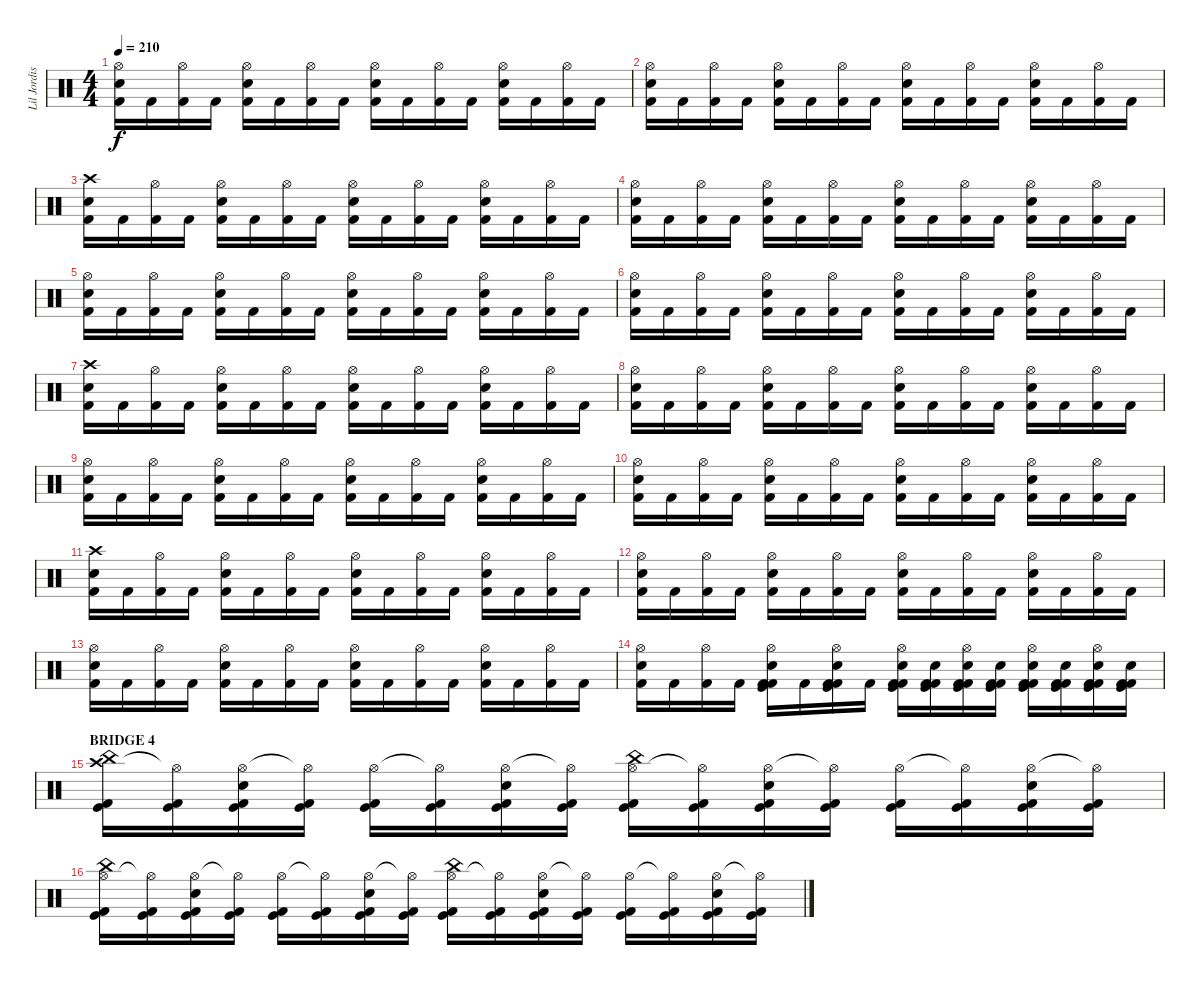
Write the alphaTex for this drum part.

\track ("Lil Jordison" "Lil Jordis") {instrument percussion}
\staff {score}
\articulation defaults
\ts (4 4)
\tempo 210
\clef neutral
\ks c
("Hi-Hat (open)" "Electric Snare (hit)" "Kick (hit) 2").16{dy f} "Kick (hit) 2".16 ("Hi-Hat (open)" "Kick (hit) 2").16 "Kick (hit) 2".16 ("Hi-Hat (open)" "Electric Snare (hit)" "Kick (hit) 2").16 "Kick (hit) 2".16 ("Hi-Hat (open)" "Kick (hit) 2").16 "Kick (hit) 2".16 ("Hi-Hat (open)" "Electric Snare (hit)" "Kick (hit) 2").16 "Kick (hit) 2".16 ("Hi-Hat (open)" "Kick (hit) 2").16 "Kick (hit) 2".16 ("Hi-Hat (open)" "Electric Snare (hit)" "Kick (hit) 2").16 "Kick (hit) 2".16 ("Hi-Hat (open)" "Kick (hit) 2").16 "Kick (hit) 2".16 |
("Hi-Hat (open)" "Electric Snare (hit)" "Kick (hit) 2").16 "Kick (hit) 2".16 ("Hi-Hat (open)" "Kick (hit) 2").16 "Kick (hit) 2".16 ("Hi-Hat (open)" "Electric Snare (hit)" "Kick (hit) 2").16 "Kick (hit) 2".16 ("Hi-Hat (open)" "Kick (hit) 2").16 "Kick (hit) 2".16 ("Hi-Hat (open)" "Electric Snare (hit)" "Kick (hit) 2").16 "Kick (hit) 2".16 ("Hi-Hat (open)" "Kick (hit) 2").16 "Kick (hit) 2".16 ("Hi-Hat (open)" "Electric Snare (hit)" "Kick (hit) 2").16 "Kick (hit) 2".16 ("Hi-Hat (open)" "Kick (hit) 2").16 "Kick (hit) 2".16 |
("Crash high (hit)" "Electric Snare (hit)" "Kick (hit) 2").16 "Kick (hit) 2".16 ("Hi-Hat (open)" "Kick (hit) 2").16 "Kick (hit) 2".16 ("Hi-Hat (open)" "Electric Snare (hit)" "Kick (hit) 2").16 "Kick (hit) 2".16 ("Hi-Hat (open)" "Kick (hit) 2").16 "Kick (hit) 2".16 ("Hi-Hat (open)" "Electric Snare (hit)" "Kick (hit) 2").16 "Kick (hit) 2".16 ("Hi-Hat (open)" "Kick (hit) 2").16 "Kick (hit) 2".16 ("Hi-Hat (open)" "Electric Snare (hit)" "Kick (hit) 2").16 "Kick (hit) 2".16 ("Hi-Hat (open)" "Kick (hit) 2").16 "Kick (hit) 2".16 |
("Hi-Hat (open)" "Electric Snare (hit)" "Kick (hit) 2").16 "Kick (hit) 2".16 ("Hi-Hat (open)" "Kick (hit) 2").16 "Kick (hit) 2".16 ("Hi-Hat (open)" "Electric Snare (hit)" "Kick (hit) 2").16 "Kick (hit) 2".16 ("Hi-Hat (open)" "Kick (hit) 2").16 "Kick (hit) 2".16 ("Hi-Hat (open)" "Electric Snare (hit)" "Kick (hit) 2").16 "Kick (hit) 2".16 ("Hi-Hat (open)" "Kick (hit) 2").16 "Kick (hit) 2".16 ("Hi-Hat (open)" "Electric Snare (hit)" "Kick (hit) 2").16 "Kick (hit) 2".16 ("Hi-Hat (open)" "Kick (hit) 2").16 "Kick (hit) 2".16 |
("Hi-Hat (open)" "Electric Snare (hit)" "Kick (hit) 2").16 "Kick (hit) 2".16 ("Hi-Hat (open)" "Kick (hit) 2").16 "Kick (hit) 2".16 ("Hi-Hat (open)" "Electric Snare (hit)" "Kick (hit) 2").16 "Kick (hit) 2".16 ("Hi-Hat (open)" "Kick (hit) 2").16 "Kick (hit) 2".16 ("Hi-Hat (open)" "Electric Snare (hit)" "Kick (hit) 2").16 "Kick (hit) 2".16 ("Hi-Hat (open)" "Kick (hit) 2").16 "Kick (hit) 2".16 ("Hi-Hat (open)" "Electric Snare (hit)" "Kick (hit) 2").16 "Kick (hit) 2".16 ("Hi-Hat (open)" "Kick (hit) 2").16 "Kick (hit) 2".16 |
("Hi-Hat (open)" "Electric Snare (hit)" "Kick (hit) 2").16 "Kick (hit) 2".16 ("Hi-Hat (open)" "Kick (hit) 2").16 "Kick (hit) 2".16 ("Hi-Hat (open)" "Electric Snare (hit)" "Kick (hit) 2").16 "Kick (hit) 2".16 ("Hi-Hat (open)" "Kick (hit) 2").16 "Kick (hit) 2".16 ("Hi-Hat (open)" "Electric Snare (hit)" "Kick (hit) 2").16 "Kick (hit) 2".16 ("Hi-Hat (open)" "Kick (hit) 2").16 "Kick (hit) 2".16 ("Hi-Hat (open)" "Electric Snare (hit)" "Kick (hit) 2").16 "Kick (hit) 2".16 ("Hi-Hat (open)" "Kick (hit) 2").16 "Kick (hit) 2".16 |
("Crash high (hit)" "Electric Snare (hit)" "Kick (hit) 2").16 "Kick (hit) 2".16 ("Hi-Hat (open)" "Kick (hit) 2").16 "Kick (hit) 2".16 ("Hi-Hat (open)" "Electric Snare (hit)" "Kick (hit) 2").16 "Kick (hit) 2".16 ("Hi-Hat (open)" "Kick (hit) 2").16 "Kick (hit) 2".16 ("Hi-Hat (open)" "Electric Snare (hit)" "Kick (hit) 2").16 "Kick (hit) 2".16 ("Hi-Hat (open)" "Kick (hit) 2").16 "Kick (hit) 2".16 ("Hi-Hat (open)" "Electric Snare (hit)" "Kick (hit) 2").16 "Kick (hit) 2".16 ("Hi-Hat (open)" "Kick (hit) 2").16 "Kick (hit) 2".16 |
("Hi-Hat (open)" "Electric Snare (hit)" "Kick (hit) 2").16 "Kick (hit) 2".16 ("Hi-Hat (open)" "Kick (hit) 2").16 "Kick (hit) 2".16 ("Hi-Hat (open)" "Electric Snare (hit)" "Kick (hit) 2").16 "Kick (hit) 2".16 ("Hi-Hat (open)" "Kick (hit) 2").16 "Kick (hit) 2".16 ("Hi-Hat (open)" "Electric Snare (hit)" "Kick (hit) 2").16 "Kick (hit) 2".16 ("Hi-Hat (open)" "Kick (hit) 2").16 "Kick (hit) 2".16 ("Hi-Hat (open)" "Electric Snare (hit)" "Kick (hit) 2").16 "Kick (hit) 2".16 ("Hi-Hat (open)" "Kick (hit) 2").16 "Kick (hit) 2".16 |
("Hi-Hat (open)" "Electric Snare (hit)" "Kick (hit) 2").16 "Kick (hit) 2".16 ("Hi-Hat (open)" "Kick (hit) 2").16 "Kick (hit) 2".16 ("Hi-Hat (open)" "Electric Snare (hit)" "Kick (hit) 2").16 "Kick (hit) 2".16 ("Hi-Hat (open)" "Kick (hit) 2").16 "Kick (hit) 2".16 ("Hi-Hat (open)" "Electric Snare (hit)" "Kick (hit) 2").16 "Kick (hit) 2".16 ("Hi-Hat (open)" "Kick (hit) 2").16 "Kick (hit) 2".16 ("Hi-Hat (open)" "Electric Snare (hit)" "Kick (hit) 2").16 "Kick (hit) 2".16 ("Hi-Hat (open)" "Kick (hit) 2").16 "Kick (hit) 2".16 |
("Hi-Hat (open)" "Electric Snare (hit)" "Kick (hit) 2").16 "Kick (hit) 2".16 ("Hi-Hat (open)" "Kick (hit) 2").16 "Kick (hit) 2".16 ("Hi-Hat (open)" "Electric Snare (hit)" "Kick (hit) 2").16 "Kick (hit) 2".16 ("Hi-Hat (open)" "Kick (hit) 2").16 "Kick (hit) 2".16 ("Hi-Hat (open)" "Electric Snare (hit)" "Kick (hit) 2").16 "Kick (hit) 2".16 ("Hi-Hat (open)" "Kick (hit) 2").16 "Kick (hit) 2".16 ("Hi-Hat (open)" "Electric Snare (hit)" "Kick (hit) 2").16 "Kick (hit) 2".16 ("Hi-Hat (open)" "Kick (hit) 2").16 "Kick (hit) 2".16 |
("Crash high (hit)" "Electric Snare (hit)" "Kick (hit) 2").16 "Kick (hit) 2".16 ("Hi-Hat (open)" "Kick (hit) 2").16 "Kick (hit) 2".16 ("Hi-Hat (open)" "Electric Snare (hit)" "Kick (hit) 2").16 "Kick (hit) 2".16 ("Hi-Hat (open)" "Kick (hit) 2").16 "Kick (hit) 2".16 ("Hi-Hat (open)" "Electric Snare (hit)" "Kick (hit) 2").16 "Kick (hit) 2".16 ("Hi-Hat (open)" "Kick (hit) 2").16 "Kick (hit) 2".16 ("Hi-Hat (open)" "Electric Snare (hit)" "Kick (hit) 2").16 "Kick (hit) 2".16 ("Hi-Hat (open)" "Kick (hit) 2").16 "Kick (hit) 2".16 |
("Hi-Hat (open)" "Electric Snare (hit)" "Kick (hit) 2").16 "Kick (hit) 2".16 ("Hi-Hat (open)" "Kick (hit) 2").16 "Kick (hit) 2".16 ("Hi-Hat (open)" "Electric Snare (hit)" "Kick (hit) 2").16 "Kick (hit) 2".16 ("Hi-Hat (open)" "Kick (hit) 2").16 "Kick (hit) 2".16 ("Hi-Hat (open)" "Electric Snare (hit)" "Kick (hit) 2").16 "Kick (hit) 2".16 ("Hi-Hat (open)" "Kick (hit) 2").16 "Kick (hit) 2".16 ("Hi-Hat (open)" "Electric Snare (hit)" "Kick (hit) 2").16 "Kick (hit) 2".16 ("Hi-Hat (open)" "Kick (hit) 2").16 "Kick (hit) 2".16 |
("Hi-Hat (open)" "Electric Snare (hit)" "Kick (hit) 2").16 "Kick (hit) 2".16 ("Hi-Hat (open)" "Kick (hit) 2").16 "Kick (hit) 2".16 ("Hi-Hat (open)" "Electric Snare (hit)" "Kick (hit) 2").16 "Kick (hit) 2".16 ("Hi-Hat (open)" "Kick (hit) 2").16 "Kick (hit) 2".16 ("Hi-Hat (open)" "Electric Snare (hit)" "Kick (hit) 2").16 "Kick (hit) 2".16 ("Hi-Hat (open)" "Kick (hit) 2").16 "Kick (hit) 2".16 ("Hi-Hat (open)" "Electric Snare (hit)" "Kick (hit) 2").16 "Kick (hit) 2".16 ("Hi-Hat (open)" "Kick (hit) 2").16 "Kick (hit) 2".16 |
("Hi-Hat (open)" "Electric Snare (hit)" "Kick (hit) 2").16 "Kick (hit) 2".16 ("Hi-Hat (open)" "Kick (hit) 2").16 "Kick (hit) 2".16 ("Hi-Hat (open)" "Kick (hit) 2" "Kick (hit)" "Electric Snare (hit)" "Kick (hit) 2").16 "Kick (hit) 2".16 ("Hi-Hat (open)" "Kick (hit) 2" "Kick (hit)" "Electric Snare (hit)" "Kick (hit) 2").16 "Kick (hit) 2".16 ("Hi-Hat (open)" "Kick (hit) 2" "Kick (hit)" "Electric Snare (hit)" "Kick (hit) 2").16 ("Kick (hit) 2" "Kick (hit)" "Electric Snare (hit)" "Kick (hit) 2").16 ("Hi-Hat (open)" "Kick (hit) 2" "Kick (hit)" "Electric Snare (hit)" "Kick (hit) 2").16 ("Kick (hit) 2" "Kick (hit)" "Electric Snare (hit)" "Kick (hit) 2").16 ("Hi-Hat (open)" "Kick (hit) 2" "Kick (hit)" "Electric Snare (hit)" "Kick (hit) 2").16 ("Kick (hit) 2" "Kick (hit)" "Electric Snare (hit)" "Kick (hit) 2").16 ("Hi-Hat (open)" "Kick (hit) 2" "Kick (hit)" "Electric Snare (hit)" "Kick (hit) 2").16 ("Kick (hit) 2" "Kick (hit)" "Electric Snare (hit)" "Kick (hit) 2").16 |
\section ("" "BRIDGE 4")
("Crash high (hit)" "China (hit)" "Kick (hit)" "Kick (hit) 2").16 ("Hi-Hat (open)"{t} "Kick (hit)" "Kick (hit) 2").16 ("Hi-Hat (open)" "Electric Snare (hit)" "Kick (hit)" "Kick (hit) 2").16 ("Hi-Hat (open)"{t} "Kick (hit)" "Kick (hit) 2").16 ("Hi-Hat (open)" "Kick (hit)" "Kick (hit) 2").16 ("Hi-Hat (open)"{t} "Kick (hit)" "Kick (hit) 2").16 ("Hi-Hat (open)" "Electric Snare (hit)" "Kick (hit)" "Kick (hit) 2").16 ("Hi-Hat (open)"{t} "Kick (hit)" "Kick (hit) 2").16 ("Hi-Hat (open)" "China (hit)" "Kick (hit)" "Kick (hit) 2").16 ("Hi-Hat (open)"{t} "Kick (hit)" "Kick (hit) 2").16 ("Hi-Hat (open)" "Electric Snare (hit)" "Kick (hit)" "Kick (hit) 2").16 ("Hi-Hat (open)"{t} "Kick (hit)" "Kick (hit) 2").16 ("Hi-Hat (open)" "Kick (hit)" "Kick (hit) 2").16 ("Hi-Hat (open)"{t} "Kick (hit)" "Kick (hit) 2").16 ("Hi-Hat (open)" "Electric Snare (hit)" "Kick (hit)" "Kick (hit) 2").16 ("Hi-Hat (open)"{t} "Kick (hit)" "Kick (hit) 2").16 |
("Hi-Hat (open)" "China (hit)" "Kick (hit)" "Kick (hit) 2").16 ("Hi-Hat (open)"{t} "Kick (hit)" "Kick (hit) 2").16 ("Hi-Hat (open)" "Electric Snare (hit)" "Kick (hit)" "Kick (hit) 2").16 ("Hi-Hat (open)"{t} "Kick (hit)" "Kick (hit) 2").16 ("Hi-Hat (open)" "Kick (hit)" "Kick (hit) 2").16 ("Hi-Hat (open)"{t} "Kick (hit)" "Kick (hit) 2").16 ("Hi-Hat (open)" "Electric Snare (hit)" "Kick (hit)" "Kick (hit) 2").16 ("Hi-Hat (open)"{t} "Kick (hit)" "Kick (hit) 2").16 ("Hi-Hat (open)" "China (hit)" "Kick (hit)" "Kick (hit) 2").16 ("Hi-Hat (open)"{t} "Kick (hit)" "Kick (hit) 2").16 ("Hi-Hat (open)" "Electric Snare (hit)" "Kick (hit)" "Kick (hit) 2").16 ("Hi-Hat (open)"{t} "Kick (hit)" "Kick (hit) 2").16 ("Hi-Hat (open)" "Kick (hit)" "Kick (hit) 2").16 ("Hi-Hat (open)"{t} "Kick (hit)" "Kick (hit) 2").16 ("Hi-Hat (open)" "Electric Snare (hit)" "Kick (hit)" "Kick (hit) 2").16 ("Hi-Hat (open)"{t} "Kick (hit)" "Kick (hit) 2").16
